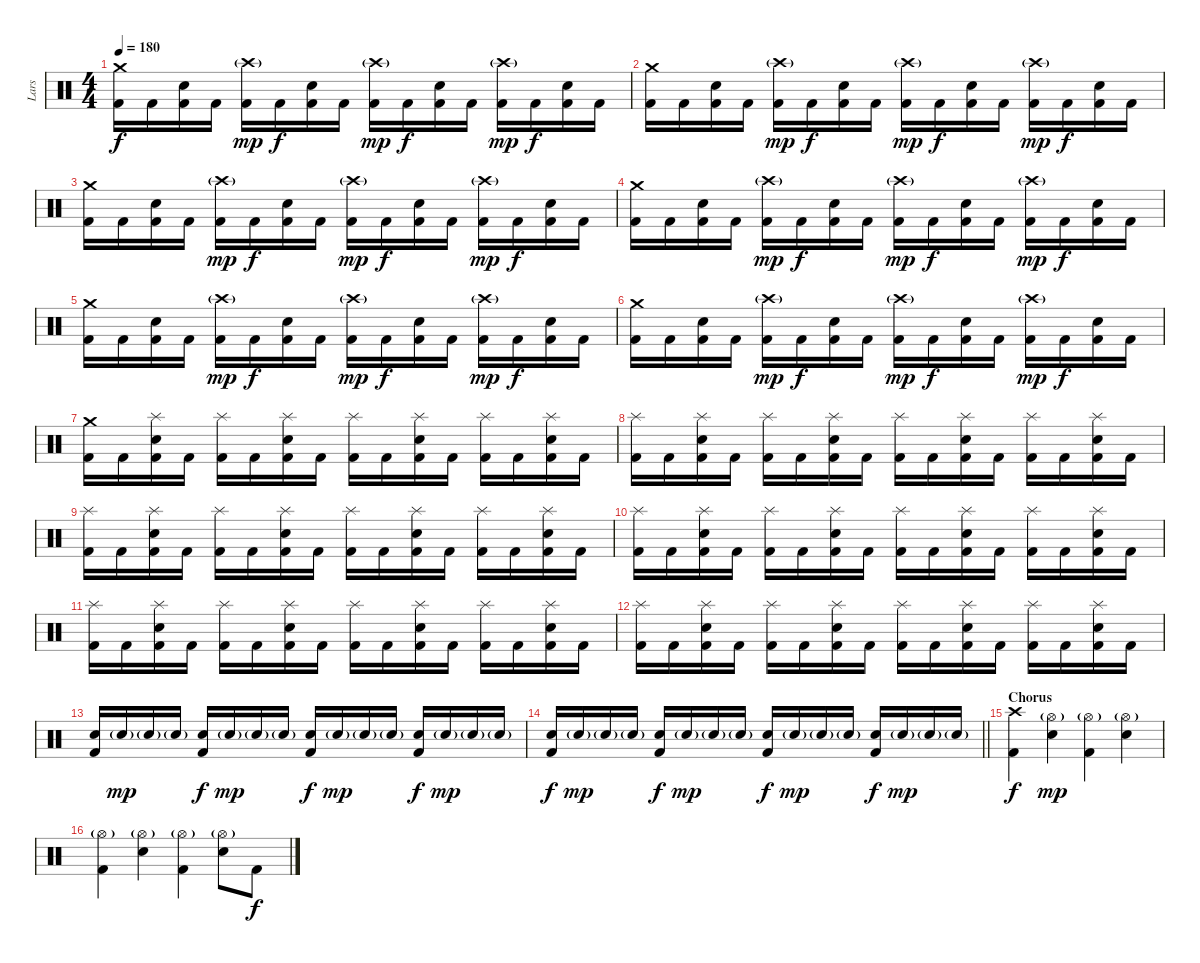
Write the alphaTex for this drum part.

\track ("Lars" "Lars") {instrument percussion}
\staff {score}
\articulation defaults
\ts (4 4)
\tempo 180
\clef neutral
\ks c
("Crash medium (hit)" "Kick (hit) 2").16{dy f} "Kick (hit) 2".16 ("Electric Snare (hit)" "Kick (hit) 2").16 "Kick (hit) 2".16 ("Crash high (hit)"{g} "Kick (hit) 2").16{dy mp} "Kick (hit) 2".16{dy f} ("Electric Snare (hit)" "Kick (hit) 2").16 "Kick (hit) 2".16 ("Crash high (hit)"{g} "Kick (hit) 2").16{dy mp} "Kick (hit) 2".16{dy f} ("Electric Snare (hit)" "Kick (hit) 2").16 "Kick (hit) 2".16 ("Crash high (hit)"{g} "Kick (hit) 2").16{dy mp} "Kick (hit) 2".16{dy f} ("Electric Snare (hit)" "Kick (hit) 2").16 "Kick (hit) 2".16 |
("Crash medium (hit)" "Kick (hit) 2").16 "Kick (hit) 2".16 ("Electric Snare (hit)" "Kick (hit) 2").16 "Kick (hit) 2".16 ("Crash high (hit)"{g} "Kick (hit) 2").16{dy mp} "Kick (hit) 2".16{dy f} ("Electric Snare (hit)" "Kick (hit) 2").16 "Kick (hit) 2".16 ("Crash high (hit)"{g} "Kick (hit) 2").16{dy mp} "Kick (hit) 2".16{dy f} ("Electric Snare (hit)" "Kick (hit) 2").16 "Kick (hit) 2".16 ("Crash high (hit)"{g} "Kick (hit) 2").16{dy mp} "Kick (hit) 2".16{dy f} ("Electric Snare (hit)" "Kick (hit) 2").16 "Kick (hit) 2".16 |
("Crash medium (hit)" "Kick (hit) 2").16 "Kick (hit) 2".16 ("Electric Snare (hit)" "Kick (hit) 2").16 "Kick (hit) 2".16 ("Crash high (hit)"{g} "Kick (hit) 2").16{dy mp} "Kick (hit) 2".16{dy f} ("Electric Snare (hit)" "Kick (hit) 2").16 "Kick (hit) 2".16 ("Crash high (hit)"{g} "Kick (hit) 2").16{dy mp} "Kick (hit) 2".16{dy f} ("Electric Snare (hit)" "Kick (hit) 2").16 "Kick (hit) 2".16 ("Crash high (hit)"{g} "Kick (hit) 2").16{dy mp} "Kick (hit) 2".16{dy f} ("Electric Snare (hit)" "Kick (hit) 2").16 "Kick (hit) 2".16 |
("Crash medium (hit)" "Kick (hit) 2").16 "Kick (hit) 2".16 ("Electric Snare (hit)" "Kick (hit) 2").16 "Kick (hit) 2".16 ("Crash high (hit)"{g} "Kick (hit) 2").16{dy mp} "Kick (hit) 2".16{dy f} ("Electric Snare (hit)" "Kick (hit) 2").16 "Kick (hit) 2".16 ("Crash high (hit)"{g} "Kick (hit) 2").16{dy mp} "Kick (hit) 2".16{dy f} ("Electric Snare (hit)" "Kick (hit) 2").16 "Kick (hit) 2".16 ("Crash high (hit)"{g} "Kick (hit) 2").16{dy mp} "Kick (hit) 2".16{dy f} ("Electric Snare (hit)" "Kick (hit) 2").16 "Kick (hit) 2".16 |
("Crash medium (hit)" "Kick (hit) 2").16 "Kick (hit) 2".16 ("Electric Snare (hit)" "Kick (hit) 2").16 "Kick (hit) 2".16 ("Crash high (hit)"{g} "Kick (hit) 2").16{dy mp} "Kick (hit) 2".16{dy f} ("Electric Snare (hit)" "Kick (hit) 2").16 "Kick (hit) 2".16 ("Crash high (hit)"{g} "Kick (hit) 2").16{dy mp} "Kick (hit) 2".16{dy f} ("Electric Snare (hit)" "Kick (hit) 2").16 "Kick (hit) 2".16 ("Crash high (hit)"{g} "Kick (hit) 2").16{dy mp} "Kick (hit) 2".16{dy f} ("Electric Snare (hit)" "Kick (hit) 2").16 "Kick (hit) 2".16 |
("Crash medium (hit)" "Kick (hit) 2").16 "Kick (hit) 2".16 ("Electric Snare (hit)" "Kick (hit) 2").16 "Kick (hit) 2".16 ("Crash high (hit)"{g} "Kick (hit) 2").16{dy mp} "Kick (hit) 2".16{dy f} ("Electric Snare (hit)" "Kick (hit) 2").16 "Kick (hit) 2".16 ("Crash high (hit)"{g} "Kick (hit) 2").16{dy mp} "Kick (hit) 2".16{dy f} ("Electric Snare (hit)" "Kick (hit) 2").16 "Kick (hit) 2".16 ("Crash high (hit)"{g} "Kick (hit) 2").16{dy mp} "Kick (hit) 2".16{dy f} ("Electric Snare (hit)" "Kick (hit) 2").16 "Kick (hit) 2".16 |
("Crash medium (hit)" "Kick (hit) 2").16 "Kick (hit) 2".16 ("Splash (hit)" "Electric Snare (hit)" "Kick (hit) 2").16 "Kick (hit) 2".16 ("Splash (hit)" "Kick (hit) 2").16 "Kick (hit) 2".16 ("Splash (hit)" "Electric Snare (hit)" "Kick (hit) 2").16 "Kick (hit) 2".16 ("Splash (hit)" "Kick (hit) 2").16 "Kick (hit) 2".16 ("Splash (hit)" "Electric Snare (hit)" "Kick (hit) 2").16 "Kick (hit) 2".16 ("Splash (hit)" "Kick (hit) 2").16 "Kick (hit) 2".16 ("Splash (hit)" "Electric Snare (hit)" "Kick (hit) 2").16 "Kick (hit) 2".16 |
("Splash (hit)" "Kick (hit) 2").16 "Kick (hit) 2".16 ("Splash (hit)" "Electric Snare (hit)" "Kick (hit) 2").16 "Kick (hit) 2".16 ("Splash (hit)" "Kick (hit) 2").16 "Kick (hit) 2".16 ("Splash (hit)" "Electric Snare (hit)" "Kick (hit) 2").16 "Kick (hit) 2".16 ("Splash (hit)" "Kick (hit) 2").16 "Kick (hit) 2".16 ("Splash (hit)" "Electric Snare (hit)" "Kick (hit) 2").16 "Kick (hit) 2".16 ("Splash (hit)" "Kick (hit) 2").16 "Kick (hit) 2".16 ("Splash (hit)" "Electric Snare (hit)" "Kick (hit) 2").16 "Kick (hit) 2".16 |
("Splash (hit)" "Kick (hit) 2").16 "Kick (hit) 2".16 ("Splash (hit)" "Electric Snare (hit)" "Kick (hit) 2").16 "Kick (hit) 2".16 ("Splash (hit)" "Kick (hit) 2").16 "Kick (hit) 2".16 ("Splash (hit)" "Electric Snare (hit)" "Kick (hit) 2").16 "Kick (hit) 2".16 ("Splash (hit)" "Kick (hit) 2").16 "Kick (hit) 2".16 ("Splash (hit)" "Electric Snare (hit)" "Kick (hit) 2").16 "Kick (hit) 2".16 ("Splash (hit)" "Kick (hit) 2").16 "Kick (hit) 2".16 ("Splash (hit)" "Electric Snare (hit)" "Kick (hit) 2").16 "Kick (hit) 2".16 |
("Splash (hit)" "Kick (hit) 2").16 "Kick (hit) 2".16 ("Splash (hit)" "Electric Snare (hit)" "Kick (hit) 2").16 "Kick (hit) 2".16 ("Splash (hit)" "Kick (hit) 2").16 "Kick (hit) 2".16 ("Splash (hit)" "Electric Snare (hit)" "Kick (hit) 2").16 "Kick (hit) 2".16 ("Splash (hit)" "Kick (hit) 2").16 "Kick (hit) 2".16 ("Splash (hit)" "Electric Snare (hit)" "Kick (hit) 2").16 "Kick (hit) 2".16 ("Splash (hit)" "Kick (hit) 2").16 "Kick (hit) 2".16 ("Splash (hit)" "Electric Snare (hit)" "Kick (hit) 2").16 "Kick (hit) 2".16 |
("Splash (hit)" "Kick (hit) 2").16 "Kick (hit) 2".16 ("Splash (hit)" "Electric Snare (hit)" "Kick (hit) 2").16 "Kick (hit) 2".16 ("Splash (hit)" "Kick (hit) 2").16 "Kick (hit) 2".16 ("Splash (hit)" "Electric Snare (hit)" "Kick (hit) 2").16 "Kick (hit) 2".16 ("Splash (hit)" "Kick (hit) 2").16 "Kick (hit) 2".16 ("Splash (hit)" "Electric Snare (hit)" "Kick (hit) 2").16 "Kick (hit) 2".16 ("Splash (hit)" "Kick (hit) 2").16 "Kick (hit) 2".16 ("Splash (hit)" "Electric Snare (hit)" "Kick (hit) 2").16 "Kick (hit) 2".16 |
("Splash (hit)" "Kick (hit) 2").16 "Kick (hit) 2".16 ("Splash (hit)" "Electric Snare (hit)" "Kick (hit) 2").16 "Kick (hit) 2".16 ("Splash (hit)" "Kick (hit) 2").16 "Kick (hit) 2".16 ("Splash (hit)" "Electric Snare (hit)" "Kick (hit) 2").16 "Kick (hit) 2".16 ("Splash (hit)" "Kick (hit) 2").16 "Kick (hit) 2".16 ("Splash (hit)" "Electric Snare (hit)" "Kick (hit) 2").16 "Kick (hit) 2".16 ("Splash (hit)" "Kick (hit) 2").16 "Kick (hit) 2".16 ("Splash (hit)" "Electric Snare (hit)" "Kick (hit) 2").16 "Kick (hit) 2".16 |
("Electric Snare (hit)" "Kick (hit) 2").16 "Electric Snare (hit)"{g}.16{dy mp} "Electric Snare (hit)"{g}.16 "Electric Snare (hit)"{g}.16 ("Electric Snare (hit)" "Kick (hit) 2").16{dy f} "Electric Snare (hit)"{g}.16{dy mp} "Electric Snare (hit)"{g}.16 "Electric Snare (hit)"{g}.16 ("Electric Snare (hit)" "Kick (hit) 2").16{dy f} "Electric Snare (hit)"{g}.16{dy mp} "Electric Snare (hit)"{g}.16 "Electric Snare (hit)"{g}.16 ("Electric Snare (hit)" "Kick (hit) 2").16{dy f} "Electric Snare (hit)"{g}.16{dy mp} "Electric Snare (hit)"{g}.16 "Electric Snare (hit)"{g}.16 |
\barLineRight lightlight
("Electric Snare (hit)" "Kick (hit) 2").16{dy f} "Electric Snare (hit)"{g}.16{dy mp} "Electric Snare (hit)"{g}.16 "Electric Snare (hit)"{g}.16 ("Electric Snare (hit)" "Kick (hit) 2").16{dy f} "Electric Snare (hit)"{g}.16{dy mp} "Electric Snare (hit)"{g}.16 "Electric Snare (hit)"{g}.16 ("Electric Snare (hit)" "Kick (hit) 2").16{dy f} "Electric Snare (hit)"{g}.16{dy mp} "Electric Snare (hit)"{g}.16 "Electric Snare (hit)"{g}.16 ("Electric Snare (hit)" "Kick (hit) 2").16{dy f} "Electric Snare (hit)"{g}.16{dy mp} "Electric Snare (hit)"{g}.16 "Electric Snare (hit)"{g}.16 |
\section ("" "Chorus")
("Crash high (hit)" "Kick (hit) 2").4{dy f} ("Hi-Hat (open)"{g} "Electric Snare (hit)").4{dy mp} ("Hi-Hat (open)"{g} "Kick (hit) 2").4 ("Hi-Hat (open)"{g} "Electric Snare (hit)").4 |
("Hi-Hat (open)"{g} "Kick (hit) 2").4 ("Hi-Hat (open)"{g} "Electric Snare (hit)").4 ("Hi-Hat (open)"{g} "Kick (hit) 2").4 ("Hi-Hat (open)"{g} "Electric Snare (hit)").8 "Kick (hit) 2".8{dy f}
